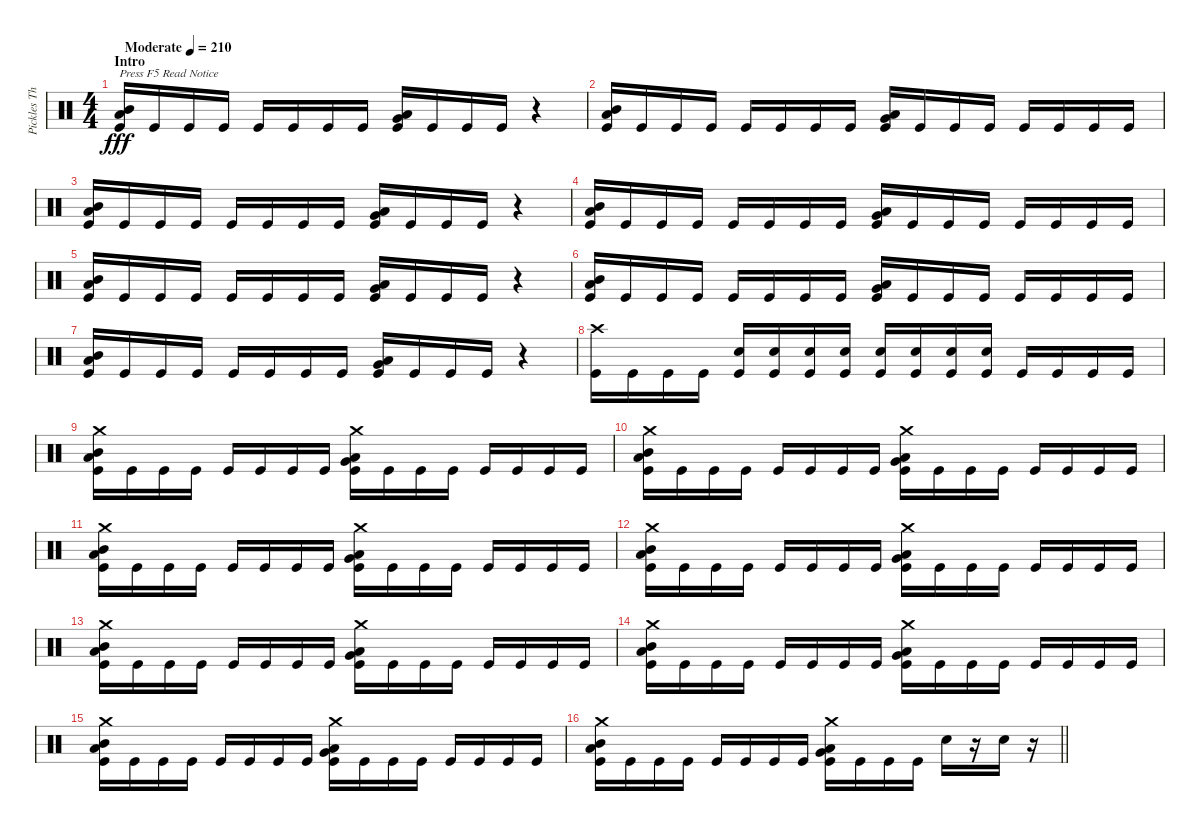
\track ("Pickles The Drummer (Drums)" "Pickles Th") {instrument percussion}
\staff {score}
\articulation defaults
\ts (4 4)
\section ("" "Intro")
\tempo (210 "Moderate")
\clef neutral
\ks c
("Mid Tom (hit)" "Low Tom (hit)" "Kick (hit)").16{txt "Press F5 Read Notice" dy fff} "Kick (hit)".16 "Kick (hit)".16 "Kick (hit)".16 "Kick (hit)".16 "Kick (hit)".16 "Kick (hit)".16 "Kick (hit)".16 ("Very Low Tom (hit)" "Low Floor Tom (hit)" "Kick (hit)").16 "Kick (hit)".16 "Kick (hit)".16 "Kick (hit)".16 r.4 |
("Mid Tom (hit)" "Low Tom (hit)" "Kick (hit)").16 "Kick (hit)".16 "Kick (hit)".16 "Kick (hit)".16 "Kick (hit)".16 "Kick (hit)".16 "Kick (hit)".16 "Kick (hit)".16 ("Very Low Tom (hit)" "Low Floor Tom (hit)" "Kick (hit)").16 "Kick (hit)".16 "Kick (hit)".16 "Kick (hit)".16 "Kick (hit)".16 "Kick (hit)".16 "Kick (hit)".16 "Kick (hit)".16 |
("Mid Tom (hit)" "Low Tom (hit)" "Kick (hit)").16 "Kick (hit)".16 "Kick (hit)".16 "Kick (hit)".16 "Kick (hit)".16 "Kick (hit)".16 "Kick (hit)".16 "Kick (hit)".16 ("Very Low Tom (hit)" "Low Floor Tom (hit)" "Kick (hit)").16 "Kick (hit)".16 "Kick (hit)".16 "Kick (hit)".16 r.4 |
("Mid Tom (hit)" "Low Tom (hit)" "Kick (hit)").16 "Kick (hit)".16 "Kick (hit)".16 "Kick (hit)".16 "Kick (hit)".16 "Kick (hit)".16 "Kick (hit)".16 "Kick (hit)".16 ("Very Low Tom (hit)" "Low Floor Tom (hit)" "Kick (hit)").16 "Kick (hit)".16 "Kick (hit)".16 "Kick (hit)".16 "Kick (hit)".16 "Kick (hit)".16 "Kick (hit)".16 "Kick (hit)".16 |
("Mid Tom (hit)" "Low Tom (hit)" "Kick (hit)").16 "Kick (hit)".16 "Kick (hit)".16 "Kick (hit)".16 "Kick (hit)".16 "Kick (hit)".16 "Kick (hit)".16 "Kick (hit)".16 ("Very Low Tom (hit)" "Low Floor Tom (hit)" "Kick (hit)").16 "Kick (hit)".16 "Kick (hit)".16 "Kick (hit)".16 r.4 |
("Mid Tom (hit)" "Low Tom (hit)" "Kick (hit)").16 "Kick (hit)".16 "Kick (hit)".16 "Kick (hit)".16 "Kick (hit)".16 "Kick (hit)".16 "Kick (hit)".16 "Kick (hit)".16 ("Very Low Tom (hit)" "Low Floor Tom (hit)" "Kick (hit)").16 "Kick (hit)".16 "Kick (hit)".16 "Kick (hit)".16 "Kick (hit)".16 "Kick (hit)".16 "Kick (hit)".16 "Kick (hit)".16 |
("Mid Tom (hit)" "Low Tom (hit)" "Kick (hit)").16 "Kick (hit)".16 "Kick (hit)".16 "Kick (hit)".16 "Kick (hit)".16 "Kick (hit)".16 "Kick (hit)".16 "Kick (hit)".16 ("Very Low Tom (hit)" "Low Floor Tom (hit)" "Kick (hit)").16 "Kick (hit)".16 "Kick (hit)".16 "Kick (hit)".16 r.4 |
("Crash high (hit)" "Kick (hit)").16 "Kick (hit)".16 "Kick (hit)".16 "Kick (hit)".16 ("Snare (hit) 2" "Kick (hit)").16 ("Snare (hit) 2" "Kick (hit)").16 ("Snare (hit) 2" "Kick (hit)").16 ("Snare (hit) 2" "Kick (hit)").16 ("Snare (hit) 2" "Kick (hit)").16 ("Snare (hit) 2" "Kick (hit)").16 ("Snare (hit) 2" "Kick (hit)").16 ("Snare (hit) 2" "Kick (hit)").16 "Kick (hit)".16 "Kick (hit)".16 "Kick (hit)".16 "Kick (hit)".16 |
("Crash medium (hit)" "Mid Tom (hit)" "Low Tom (hit)" "Kick (hit)").16 "Kick (hit)".16 "Kick (hit)".16 "Kick (hit)".16 "Kick (hit)".16 "Kick (hit)".16 "Kick (hit)".16 "Kick (hit)".16 ("Crash medium (hit)" "Very Low Tom (hit)" "Low Floor Tom (hit)" "Kick (hit)").16 "Kick (hit)".16 "Kick (hit)".16 "Kick (hit)".16 "Kick (hit)".16 "Kick (hit)".16 "Kick (hit)".16 "Kick (hit)".16 |
("Crash medium (hit)" "Mid Tom (hit)" "Low Tom (hit)" "Kick (hit)").16 "Kick (hit)".16 "Kick (hit)".16 "Kick (hit)".16 "Kick (hit)".16 "Kick (hit)".16 "Kick (hit)".16 "Kick (hit)".16 ("Crash medium (hit)" "Very Low Tom (hit)" "Low Floor Tom (hit)" "Kick (hit)").16 "Kick (hit)".16 "Kick (hit)".16 "Kick (hit)".16 "Kick (hit)".16 "Kick (hit)".16 "Kick (hit)".16 "Kick (hit)".16 |
("Crash medium (hit)" "Mid Tom (hit)" "Low Tom (hit)" "Kick (hit)").16 "Kick (hit)".16 "Kick (hit)".16 "Kick (hit)".16 "Kick (hit)".16 "Kick (hit)".16 "Kick (hit)".16 "Kick (hit)".16 ("Crash medium (hit)" "Very Low Tom (hit)" "Low Floor Tom (hit)" "Kick (hit)").16 "Kick (hit)".16 "Kick (hit)".16 "Kick (hit)".16 "Kick (hit)".16 "Kick (hit)".16 "Kick (hit)".16 "Kick (hit)".16 |
("Crash medium (hit)" "Mid Tom (hit)" "Low Tom (hit)" "Kick (hit)").16 "Kick (hit)".16 "Kick (hit)".16 "Kick (hit)".16 "Kick (hit)".16 "Kick (hit)".16 "Kick (hit)".16 "Kick (hit)".16 ("Crash medium (hit)" "Very Low Tom (hit)" "Low Floor Tom (hit)" "Kick (hit)").16 "Kick (hit)".16 "Kick (hit)".16 "Kick (hit)".16 "Kick (hit)".16 "Kick (hit)".16 "Kick (hit)".16 "Kick (hit)".16 |
("Crash medium (hit)" "Mid Tom (hit)" "Low Tom (hit)" "Kick (hit)").16 "Kick (hit)".16 "Kick (hit)".16 "Kick (hit)".16 "Kick (hit)".16 "Kick (hit)".16 "Kick (hit)".16 "Kick (hit)".16 ("Crash medium (hit)" "Very Low Tom (hit)" "Low Floor Tom (hit)" "Kick (hit)").16 "Kick (hit)".16 "Kick (hit)".16 "Kick (hit)".16 "Kick (hit)".16 "Kick (hit)".16 "Kick (hit)".16 "Kick (hit)".16 |
("Crash medium (hit)" "Mid Tom (hit)" "Low Tom (hit)" "Kick (hit)").16 "Kick (hit)".16 "Kick (hit)".16 "Kick (hit)".16 "Kick (hit)".16 "Kick (hit)".16 "Kick (hit)".16 "Kick (hit)".16 ("Crash medium (hit)" "Very Low Tom (hit)" "Low Floor Tom (hit)" "Kick (hit)").16 "Kick (hit)".16 "Kick (hit)".16 "Kick (hit)".16 "Kick (hit)".16 "Kick (hit)".16 "Kick (hit)".16 "Kick (hit)".16 |
("Crash medium (hit)" "Mid Tom (hit)" "Low Tom (hit)" "Kick (hit)").16 "Kick (hit)".16 "Kick (hit)".16 "Kick (hit)".16 "Kick (hit)".16 "Kick (hit)".16 "Kick (hit)".16 "Kick (hit)".16 ("Crash medium (hit)" "Very Low Tom (hit)" "Low Floor Tom (hit)" "Kick (hit)").16 "Kick (hit)".16 "Kick (hit)".16 "Kick (hit)".16 "Kick (hit)".16 "Kick (hit)".16 "Kick (hit)".16 "Kick (hit)".16 |
\barLineRight lightlight
("Crash medium (hit)" "Mid Tom (hit)" "Low Tom (hit)" "Kick (hit)").16 "Kick (hit)".16 "Kick (hit)".16 "Kick (hit)".16 "Kick (hit)".16 "Kick (hit)".16 "Kick (hit)".16 "Kick (hit)".16 ("Crash medium (hit)" "Very Low Tom (hit)" "Low Floor Tom (hit)" "Kick (hit)").16 "Kick (hit)".16 "Kick (hit)".16 "Kick (hit)".16 "Snare (hit) 2".16 r.16 "Snare (hit) 2".16 r.16
